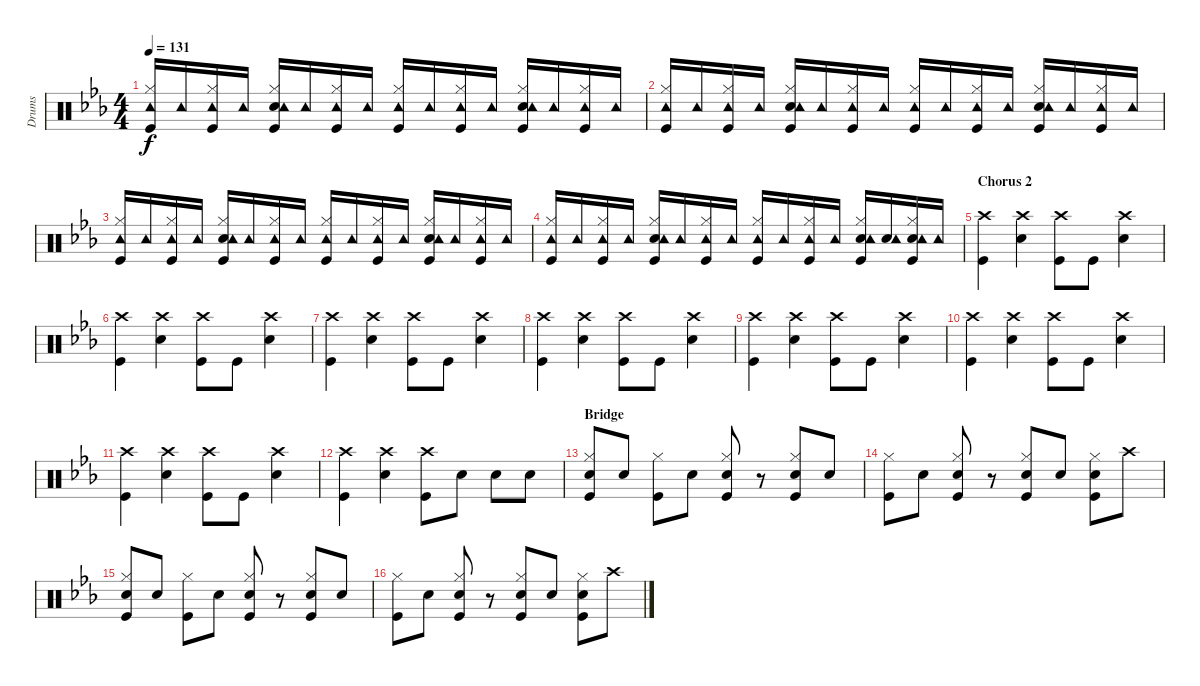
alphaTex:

\track ("Drums" "Drums") {instrument percussion}
\staff {score}
\articulation defaults
\ts (4 4)
\tempo 131
\clef neutral
\ks eb
("Kick (hit)" "Hi-Hat (closed)" "Tambourine (hit)").16{dy f} "Tambourine (hit)".16 ("Kick (hit)" "Hi-Hat (closed)" "Tambourine (hit)").16 "Tambourine (hit)".16 ("Kick (hit)" "Snare (hit) 2" "Hi-Hat (closed)" "Tambourine (hit)").16 "Tambourine (hit)".16 ("Kick (hit)" "Hi-Hat (closed)" "Tambourine (hit)").16 "Tambourine (hit)".16 ("Kick (hit)" "Hi-Hat (closed)" "Tambourine (hit)").16 "Tambourine (hit)".16 ("Kick (hit)" "Hi-Hat (closed)" "Tambourine (hit)").16 "Tambourine (hit)".16 ("Kick (hit)" "Snare (hit) 2" "Hi-Hat (closed)" "Tambourine (hit)").16 "Tambourine (hit)".16 ("Kick (hit)" "Hi-Hat (closed)" "Tambourine (hit)").16 "Tambourine (hit)".16 |
("Kick (hit)" "Hi-Hat (closed)" "Tambourine (hit)").16 "Tambourine (hit)".16 ("Kick (hit)" "Hi-Hat (closed)" "Tambourine (hit)").16 "Tambourine (hit)".16 ("Kick (hit)" "Snare (hit) 2" "Hi-Hat (closed)" "Tambourine (hit)").16 "Tambourine (hit)".16 ("Kick (hit)" "Hi-Hat (closed)" "Tambourine (hit)").16 "Tambourine (hit)".16 ("Kick (hit)" "Hi-Hat (closed)" "Tambourine (hit)").16 "Tambourine (hit)".16 ("Kick (hit)" "Hi-Hat (closed)" "Tambourine (hit)").16 "Tambourine (hit)".16 ("Kick (hit)" "Snare (hit) 2" "Hi-Hat (closed)" "Tambourine (hit)").16 "Tambourine (hit)".16 ("Kick (hit)" "Hi-Hat (closed)" "Tambourine (hit)").16 "Tambourine (hit)".16 |
("Kick (hit)" "Hi-Hat (closed)" "Tambourine (hit)").16 "Tambourine (hit)".16 ("Kick (hit)" "Hi-Hat (closed)" "Tambourine (hit)").16 "Tambourine (hit)".16 ("Kick (hit)" "Snare (hit) 2" "Hi-Hat (closed)" "Tambourine (hit)").16 "Tambourine (hit)".16 ("Kick (hit)" "Hi-Hat (closed)" "Tambourine (hit)").16 "Tambourine (hit)".16 ("Kick (hit)" "Hi-Hat (closed)" "Tambourine (hit)").16 "Tambourine (hit)".16 ("Kick (hit)" "Hi-Hat (closed)" "Tambourine (hit)").16 "Tambourine (hit)".16 ("Kick (hit)" "Snare (hit) 2" "Hi-Hat (closed)" "Tambourine (hit)").16 "Tambourine (hit)".16 ("Kick (hit)" "Hi-Hat (closed)" "Tambourine (hit)").16 "Tambourine (hit)".16 |
("Kick (hit)" "Hi-Hat (closed)" "Tambourine (hit)").16 "Tambourine (hit)".16 ("Kick (hit)" "Hi-Hat (closed)" "Tambourine (hit)").16 "Tambourine (hit)".16 ("Kick (hit)" "Snare (hit) 2" "Hi-Hat (closed)" "Tambourine (hit)").16 "Tambourine (hit)".16 ("Kick (hit)" "Hi-Hat (closed)" "Tambourine (hit)").16 "Tambourine (hit)".16 ("Kick (hit)" "Hi-Hat (closed)" "Tambourine (hit)").16 "Tambourine (hit)".16 ("Kick (hit)" "Hi-Hat (closed)" "Tambourine (hit)").16 "Tambourine (hit)".16 ("Kick (hit)" "Snare (hit) 2" "Hi-Hat (closed)" "Tambourine (hit)").16 ("Snare (hit) 2" "Tambourine (hit)").16 ("Kick (hit)" "Snare (hit) 2" "Hi-Hat (closed)" "Tambourine (hit)").16 "Tambourine (hit)".16 |
\section ("" "Chorus 2")
("Kick (hit)" "Crash high (hit)").4 ("Snare (hit) 2" "Crash high (hit)").4 ("Kick (hit)" "Crash high (hit)").8 "Kick (hit)".8 ("Snare (hit) 2" "Crash high (hit)").4 |
("Kick (hit)" "Crash high (hit)").4 ("Snare (hit) 2" "Crash high (hit)").4 ("Kick (hit)" "Crash high (hit)").8 "Kick (hit)".8 ("Snare (hit) 2" "Crash high (hit)").4 |
("Kick (hit)" "Crash high (hit)").4 ("Snare (hit) 2" "Crash high (hit)").4 ("Kick (hit)" "Crash high (hit)").8 "Kick (hit)".8 ("Snare (hit) 2" "Crash high (hit)").4 |
("Kick (hit)" "Crash high (hit)").4 ("Snare (hit) 2" "Crash high (hit)").4 ("Kick (hit)" "Crash high (hit)").8 "Kick (hit)".8 ("Snare (hit) 2" "Crash high (hit)").4 |
("Kick (hit)" "Crash high (hit)").4 ("Snare (hit) 2" "Crash high (hit)").4 ("Kick (hit)" "Crash high (hit)").8 "Kick (hit)".8 ("Snare (hit) 2" "Crash high (hit)").4 |
("Kick (hit)" "Crash high (hit)").4 ("Snare (hit) 2" "Crash high (hit)").4 ("Kick (hit)" "Crash high (hit)").8 "Kick (hit)".8 ("Snare (hit) 2" "Crash high (hit)").4 |
("Kick (hit)" "Crash high (hit)").4 ("Snare (hit) 2" "Crash high (hit)").4 ("Kick (hit)" "Crash high (hit)").8 "Kick (hit)".8 ("Snare (hit) 2" "Crash high (hit)").4 |
("Kick (hit)" "Crash high (hit)").4 ("Snare (hit) 2" "Crash high (hit)").4 ("Kick (hit)" "Crash high (hit)").8 "Snare (hit) 2".8 "Snare (hit) 2".8 "Snare (hit) 2".8 |
\section ("" "Bridge")
("Kick (hit)" "Snare (hit) 2" "Hi-Hat (closed)").8 "Snare (hit) 2".8 ("Kick (hit)" "Hi-Hat (closed)").8 "Snare (hit) 2".8 ("Kick (hit)" "Snare (hit) 2" "Hi-Hat (closed)").8 r.8 ("Kick (hit)" "Snare (hit) 2" "Hi-Hat (closed)").8 "Snare (hit) 2".8 |
("Kick (hit)" "Hi-Hat (closed)").8 "Snare (hit) 2".8 ("Kick (hit)" "Snare (hit) 2" "Hi-Hat (closed)").8 r.8 ("Kick (hit)" "Snare (hit) 2" "Hi-Hat (closed)").8 "Snare (hit) 2".8 ("Kick (hit)" "Snare (hit) 2" "Hi-Hat (closed)").8 "Crash high (hit)".8 |
("Kick (hit)" "Snare (hit) 2" "Hi-Hat (closed)").8 "Snare (hit) 2".8 ("Kick (hit)" "Hi-Hat (closed)").8 "Snare (hit) 2".8 ("Kick (hit)" "Snare (hit) 2" "Hi-Hat (closed)").8 r.8 ("Kick (hit)" "Snare (hit) 2" "Hi-Hat (closed)").8 "Snare (hit) 2".8 |
("Kick (hit)" "Hi-Hat (closed)").8 "Snare (hit) 2".8 ("Kick (hit)" "Snare (hit) 2" "Hi-Hat (closed)").8 r.8 ("Kick (hit)" "Snare (hit) 2" "Hi-Hat (closed)").8 "Snare (hit) 2".8 ("Kick (hit)" "Snare (hit) 2" "Hi-Hat (closed)").8 "Crash high (hit)".8
